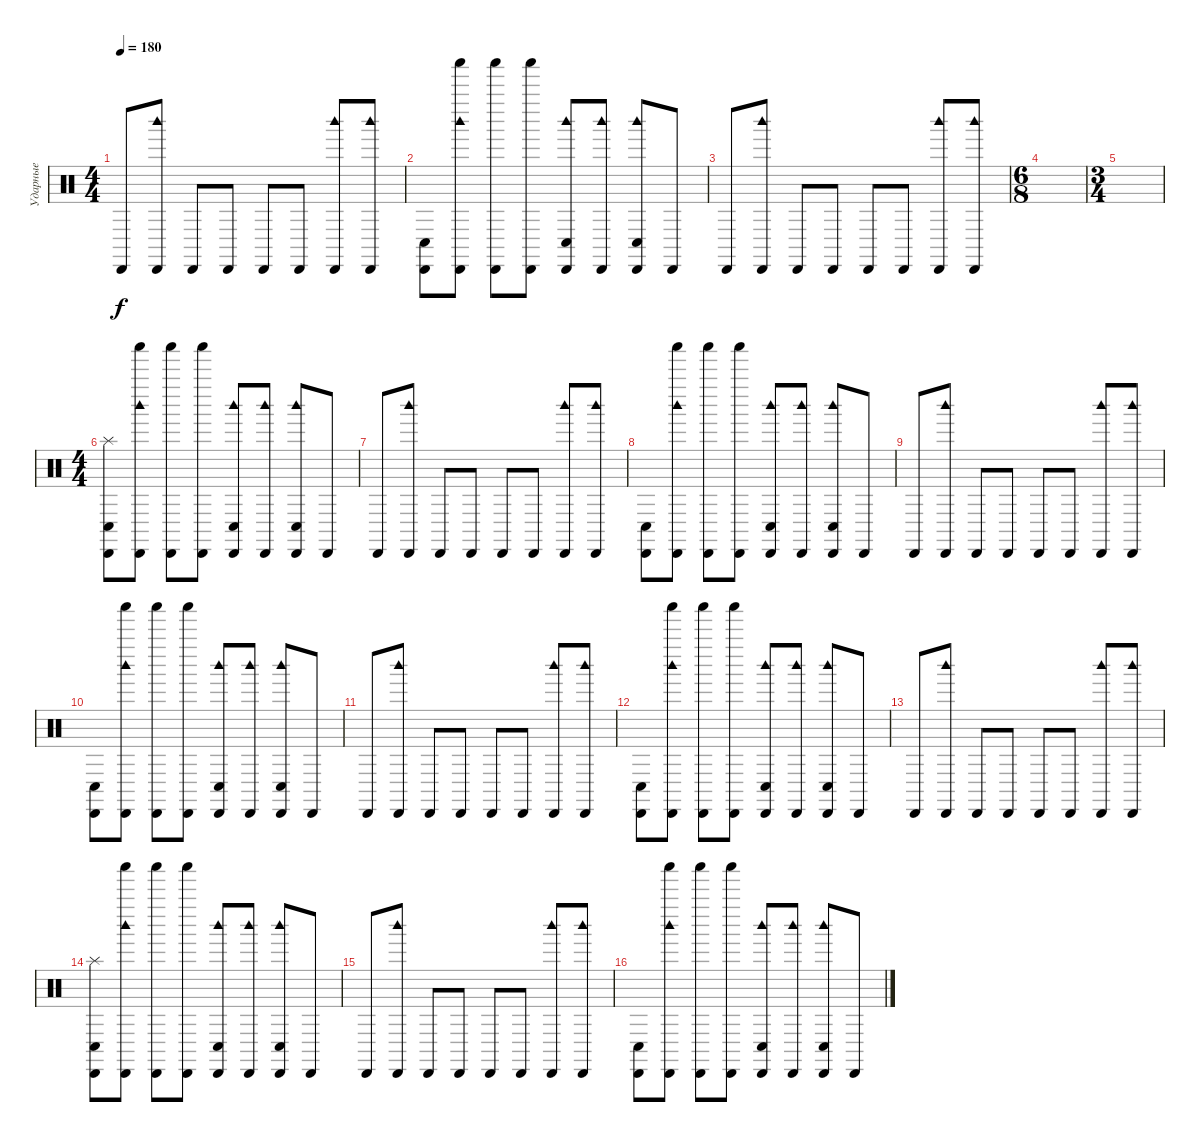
\track ("Ударные" "Ударные") {instrument percussion}
\staff {score}
\articulation defaults
\ts (4 4)
\tempo 180
\clef neutral
\ks c "Cabasa (hit)".8{dy f}
("Woodblock high (hit)" "Cabasa (hit)").8 "Cabasa (hit)".8 "Cabasa (hit)".8 "Cabasa (hit)".8 "Cabasa (hit)".8 ("Woodblock high (hit)" "Cabasa (hit)").8 ("Woodblock high (hit)" "Cabasa (hit)").8 |
("Cabasa (hit)" "Conga low (hit)").8 ("Woodblock high (hit)" "Shaker (hit)" "Cabasa (hit)").8 ("Shaker (hit)" "Cabasa (hit)").8 ("Shaker (hit)" "Cabasa (hit)").8 ("Woodblock high (hit)" "Cabasa (hit)" "Conga low (hit)").8 ("Woodblock high (hit)" "Cabasa (hit)").8 ("Woodblock high (hit)" "Cabasa (hit)" "Conga low (hit)").8 "Cabasa (hit)".8 |
"Cabasa (hit)".8 ("Woodblock high (hit)" "Cabasa (hit)").8 "Cabasa (hit)".8 "Cabasa (hit)".8 "Cabasa (hit)".8 "Cabasa (hit)".8 ("Woodblock high (hit)" "Cabasa (hit)").8 ("Woodblock high (hit)" "Cabasa (hit)").8 |
\ts (6 8)
|
\ts (3 4)
|
\ts (4 4)
("Cabasa (hit)" "Splash (hit)" "Conga low (hit)").8 ("Woodblock high (hit)" "Shaker (hit)" "Cabasa (hit)").8 ("Shaker (hit)" "Cabasa (hit)").8 ("Shaker (hit)" "Cabasa (hit)").8 ("Woodblock high (hit)" "Cabasa (hit)" "Conga low (hit)").8 ("Woodblock high (hit)" "Cabasa (hit)").8 ("Woodblock high (hit)" "Cabasa (hit)" "Conga low (hit)").8 "Cabasa (hit)".8 |
"Cabasa (hit)".8 ("Woodblock high (hit)" "Cabasa (hit)").8 "Cabasa (hit)".8 "Cabasa (hit)".8 "Cabasa (hit)".8 "Cabasa (hit)".8 ("Woodblock high (hit)" "Cabasa (hit)").8 ("Woodblock high (hit)" "Cabasa (hit)").8 |
("Cabasa (hit)" "Conga low (hit)").8 ("Woodblock high (hit)" "Shaker (hit)" "Cabasa (hit)").8 ("Shaker (hit)" "Cabasa (hit)").8 ("Shaker (hit)" "Cabasa (hit)").8 ("Woodblock high (hit)" "Cabasa (hit)" "Conga low (hit)").8 ("Woodblock high (hit)" "Cabasa (hit)").8 ("Woodblock high (hit)" "Cabasa (hit)" "Conga low (hit)").8 "Cabasa (hit)".8 |
"Cabasa (hit)".8 ("Woodblock high (hit)" "Cabasa (hit)").8 "Cabasa (hit)".8 "Cabasa (hit)".8 "Cabasa (hit)".8 "Cabasa (hit)".8 ("Woodblock high (hit)" "Cabasa (hit)").8 ("Woodblock high (hit)" "Cabasa (hit)").8 |
("Cabasa (hit)" "Conga low (hit)").8 ("Woodblock high (hit)" "Shaker (hit)" "Cabasa (hit)").8 ("Shaker (hit)" "Cabasa (hit)").8 ("Shaker (hit)" "Cabasa (hit)").8 ("Woodblock high (hit)" "Cabasa (hit)" "Conga low (hit)").8 ("Woodblock high (hit)" "Cabasa (hit)").8 ("Woodblock high (hit)" "Cabasa (hit)" "Conga low (hit)").8 "Cabasa (hit)".8 |
"Cabasa (hit)".8 ("Woodblock high (hit)" "Cabasa (hit)").8 "Cabasa (hit)".8 "Cabasa (hit)".8 "Cabasa (hit)".8 "Cabasa (hit)".8 ("Woodblock high (hit)" "Cabasa (hit)").8 ("Woodblock high (hit)" "Cabasa (hit)").8 |
("Cabasa (hit)" "Conga low (hit)").8 ("Woodblock high (hit)" "Shaker (hit)" "Cabasa (hit)").8 ("Shaker (hit)" "Cabasa (hit)").8 ("Shaker (hit)" "Cabasa (hit)").8 ("Woodblock high (hit)" "Cabasa (hit)" "Conga low (hit)").8 ("Woodblock high (hit)" "Cabasa (hit)").8 ("Woodblock high (hit)" "Cabasa (hit)" "Conga low (hit)").8 "Cabasa (hit)".8 |
"Cabasa (hit)".8 ("Woodblock high (hit)" "Cabasa (hit)").8 "Cabasa (hit)".8 "Cabasa (hit)".8 "Cabasa (hit)".8 "Cabasa (hit)".8 ("Woodblock high (hit)" "Cabasa (hit)").8 ("Woodblock high (hit)" "Cabasa (hit)").8 |
("Cabasa (hit)" "Splash (hit)" "Conga low (hit)").8 ("Woodblock high (hit)" "Shaker (hit)" "Cabasa (hit)").8 ("Shaker (hit)" "Cabasa (hit)").8 ("Shaker (hit)" "Cabasa (hit)").8 ("Woodblock high (hit)" "Cabasa (hit)" "Conga low (hit)").8 ("Woodblock high (hit)" "Cabasa (hit)").8 ("Woodblock high (hit)" "Cabasa (hit)" "Conga low (hit)").8 "Cabasa (hit)".8 |
"Cabasa (hit)".8 ("Woodblock high (hit)" "Cabasa (hit)").8 "Cabasa (hit)".8 "Cabasa (hit)".8 "Cabasa (hit)".8 "Cabasa (hit)".8 ("Woodblock high (hit)" "Cabasa (hit)").8 ("Woodblock high (hit)" "Cabasa (hit)").8 |
("Cabasa (hit)" "Conga low (hit)").8 ("Woodblock high (hit)" "Shaker (hit)" "Cabasa (hit)").8 ("Shaker (hit)" "Cabasa (hit)").8 ("Shaker (hit)" "Cabasa (hit)").8 ("Woodblock high (hit)" "Cabasa (hit)" "Conga low (hit)").8 ("Woodblock high (hit)" "Cabasa (hit)").8 ("Woodblock high (hit)" "Cabasa (hit)" "Conga low (hit)").8 "Cabasa (hit)".8
